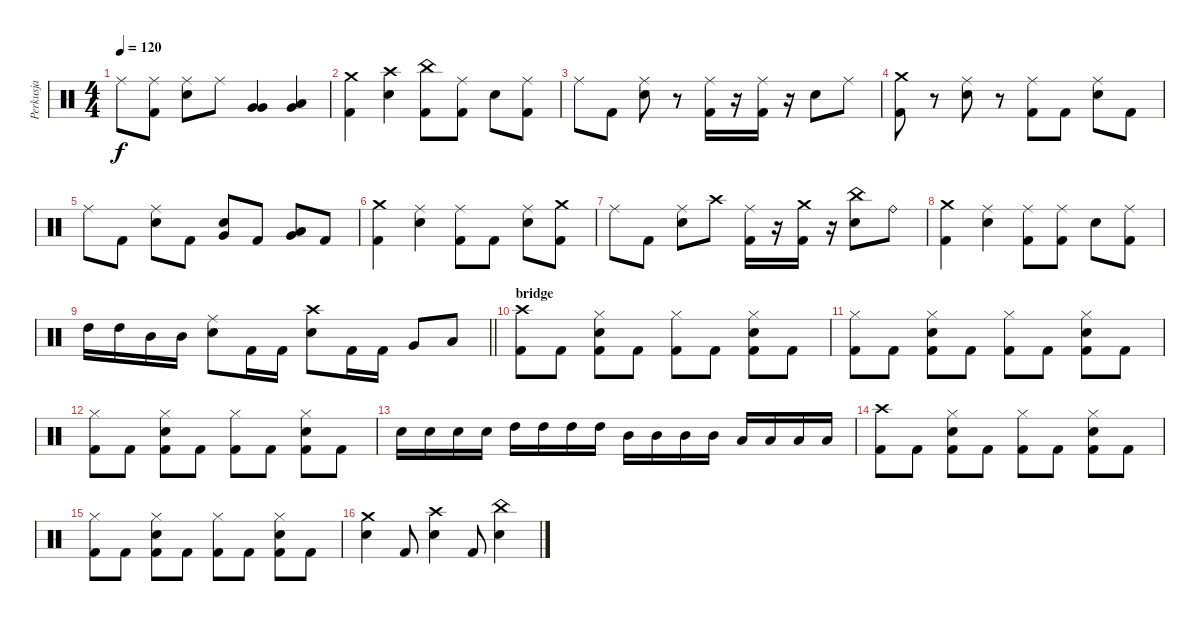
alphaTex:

\track ("Perkusja" "Perkusja") {instrument percussion}
\staff {score}
\articulation defaults
\ts (4 4)
\tempo 120
\clef neutral
\ks c "Ride (middle)".8{dy f}
("Ride (middle)" "Kick (hit) 2").8 ("Ride (middle)" "Snare (hit) 2").8 "Ride (middle)".8 ("Very Low Tom (hit)" "Very Low Tom (hit)").4 ("Very Low Tom (hit)" "Low Floor Tom (hit)").4 |
("Kick (hit) 2" "Crash medium (hit)").4 ("Crash high (hit)" "Snare (hit) 2").4 ("China (hit)" "Kick (hit) 2").8 ("Ride (middle)" "Kick (hit) 2").8 "Snare (hit) 2".8 ("Ride (middle)" "Kick (hit) 2").8 |
"Ride (middle)".8 "Kick (hit) 2".8 ("Ride (middle)" "Snare (hit) 2").8 r.8 ("Ride (middle)" "Kick (hit) 2").16 r.16 ("Ride (middle)" "Kick (hit) 2").16 r.16 "Snare (hit) 2".8 "Ride (middle)".8 |
("Crash medium (hit)" "Kick (hit) 2").8 r.8 ("Ride (middle)" "Snare (hit) 2").8 r.8 ("Ride (middle)" "Kick (hit) 2").8 "Kick (hit) 2".8 ("Ride (middle)" "Snare (hit) 2").8 "Kick (hit) 2".8 |
"Ride (middle)".8 "Kick (hit) 2".8 ("Ride (middle)" "Snare (hit) 2").8 "Kick (hit) 2".8 ("Snare (hit) 2" "Very Low Tom (hit)").8 "Kick (hit) 2".8 ("Very Low Tom (hit)" "Low Floor Tom (hit)").8 "Kick (hit) 2".8 |
("Kick (hit) 2" "Crash medium (hit)").4 ("Ride (middle)" "Snare (hit) 2").4 ("Ride (middle)" "Kick (hit) 2").8 "Kick (hit) 2".8 ("Ride (middle)" "Snare (hit) 2").8 ("Crash medium (hit)" "Kick (hit) 2").8 |
"Ride (middle)".8 "Kick (hit) 2".8 ("Ride (middle)" "Snare (hit) 2").8 "Crash high (hit)".8 ("Ride (middle)" "Kick (hit) 2").16 r.16 ("Crash medium (hit)" "Kick (hit) 2").16 r.16 ("China (hit)" "Snare (hit) 2").8 "Ride (bell)".8 |
("Crash medium (hit)" "Kick (hit) 2").4 ("Ride (middle)" "Snare (hit) 2").4 ("Ride (middle)" "Kick (hit) 2").8 ("Ride (middle)" "Kick (hit) 2").8 "Snare (hit) 2".8 ("Ride (middle)" "Kick (hit) 2").8 |
\barLineRight lightlight "High Tom (hit)".16 "High Tom (hit)".16 "Mid Tom (hit)".16 "Mid Tom (hit)".16
("Ride (middle)" "Snare (hit) 2").8 "Kick (hit) 2".16 "Kick (hit) 2".16 ("Crash high (hit)" "Snare (hit) 2").8 "Kick (hit) 2".16 "Kick (hit) 2".16 "Very Low Tom (hit)".8 "Low Floor Tom (hit)".8 |
\section ("" "bridge")
("Crash high (hit)" "Kick (hit) 2").8 "Kick (hit) 2".8 ("Hi-Hat (closed)" "Kick (hit) 2" "Snare (hit) 2").8 "Kick (hit) 2".8 ("Hi-Hat (closed)" "Kick (hit) 2").8 "Kick (hit) 2".8 ("Hi-Hat (closed)" "Kick (hit) 2" "Snare (hit) 2").8 "Kick (hit) 2".8 |
("Hi-Hat (closed)" "Kick (hit) 2").8 "Kick (hit) 2".8 ("Hi-Hat (closed)" "Kick (hit) 2" "Snare (hit) 2").8 "Kick (hit) 2".8 ("Hi-Hat (closed)" "Kick (hit) 2").8 "Kick (hit) 2".8 ("Hi-Hat (closed)" "Kick (hit) 2" "Snare (hit) 2").8 "Kick (hit) 2".8 |
("Hi-Hat (closed)" "Kick (hit) 2").8 "Kick (hit) 2".8 ("Hi-Hat (closed)" "Kick (hit) 2" "Snare (hit) 2").8 "Kick (hit) 2".8 ("Hi-Hat (closed)" "Kick (hit) 2").8 "Kick (hit) 2".8 ("Hi-Hat (closed)" "Kick (hit) 2" "Snare (hit) 2").8 "Kick (hit) 2".8 |
"Snare (hit) 2".16 "Snare (hit) 2".16 "Snare (hit) 2".16 "Snare (hit) 2".16 "High Tom (hit)".16 "High Tom (hit)".16 "High Tom (hit)".16 "High Tom (hit)".16 "Mid Tom (hit)".16 "Mid Tom (hit)".16 "Mid Tom (hit)".16 "Mid Tom (hit)".16 "Low Tom (hit)".16 "Low Tom (hit)".16 "Low Tom (hit)".16 "Low Tom (hit)".16 |
("Crash high (hit)" "Kick (hit) 2").8 "Kick (hit) 2".8 ("Hi-Hat (closed)" "Kick (hit) 2" "Snare (hit) 2").8 "Kick (hit) 2".8 ("Hi-Hat (closed)" "Kick (hit) 2").8 "Kick (hit) 2".8 ("Hi-Hat (closed)" "Kick (hit) 2" "Snare (hit) 2").8 "Kick (hit) 2".8 |
("Hi-Hat (closed)" "Kick (hit) 2").8 "Kick (hit) 2".8 ("Hi-Hat (closed)" "Kick (hit) 2" "Snare (hit) 2").8 "Kick (hit) 2".8 ("Hi-Hat (closed)" "Kick (hit) 2").8 "Kick (hit) 2".8 ("Hi-Hat (closed)" "Kick (hit) 2" "Snare (hit) 2").8 "Kick (hit) 2".8 |
("Snare (hit) 2" "Crash medium (hit)").4 "Kick (hit) 2".8 ("Snare (hit) 2" "Crash high (hit)").4 "Kick (hit) 2".8 ("Snare (hit) 2" "China (hit)").4
